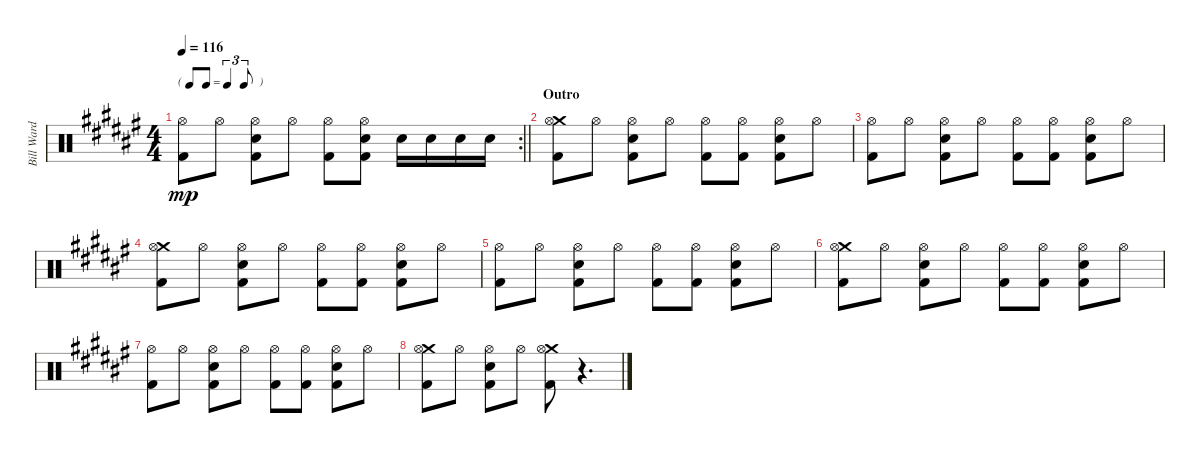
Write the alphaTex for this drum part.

\track ("Bill Ward" "Bill Ward") {instrument percussion}
\staff {score}
\articulation defaults
\rc 2
\ts (4 4)
\tf triplet8th
\tempo 116
\clef neutral
\barLineRight lightlight
\ks f#
("Hi-Hat (open)" "Kick (hit) 2").8{dy mp} "Hi-Hat (open)".8 ("Hi-Hat (open)" "Snare (hit) 2" "Kick (hit) 2").8 "Hi-Hat (open)".8 ("Hi-Hat (open)" "Kick (hit) 2").8 ("Hi-Hat (open)" "Snare (hit) 2" "Kick (hit) 2").8 "Snare (hit) 2".16 "Snare (hit) 2".16 "Snare (hit) 2".16 "Snare (hit) 2".16 |
\section ("" "Outro")
("Crash medium (hit)" "Hi-Hat (open)" "Kick (hit) 2").8 "Hi-Hat (open)".8 ("Hi-Hat (open)" "Snare (hit) 2" "Kick (hit) 2").8 "Hi-Hat (open)".8 ("Hi-Hat (open)" "Kick (hit) 2").8 ("Hi-Hat (open)" "Kick (hit) 2").8 ("Hi-Hat (open)" "Snare (hit) 2" "Kick (hit) 2").8 "Hi-Hat (open)".8 |
("Hi-Hat (open)" "Kick (hit) 2").8 "Hi-Hat (open)".8 ("Hi-Hat (open)" "Snare (hit) 2" "Kick (hit) 2").8 "Hi-Hat (open)".8 ("Hi-Hat (open)" "Kick (hit) 2").8 ("Hi-Hat (open)" "Kick (hit) 2").8 ("Hi-Hat (open)" "Snare (hit) 2" "Kick (hit) 2").8 "Hi-Hat (open)".8 |
("Crash medium (hit)" "Hi-Hat (open)" "Kick (hit) 2").8 "Hi-Hat (open)".8 ("Hi-Hat (open)" "Snare (hit) 2" "Kick (hit) 2").8 "Hi-Hat (open)".8 ("Hi-Hat (open)" "Kick (hit) 2").8 ("Hi-Hat (open)" "Kick (hit) 2").8 ("Hi-Hat (open)" "Snare (hit) 2" "Kick (hit) 2").8 "Hi-Hat (open)".8 |
("Hi-Hat (open)" "Kick (hit) 2").8 "Hi-Hat (open)".8 ("Hi-Hat (open)" "Snare (hit) 2" "Kick (hit) 2").8 "Hi-Hat (open)".8 ("Hi-Hat (open)" "Kick (hit) 2").8 ("Hi-Hat (open)" "Kick (hit) 2").8 ("Hi-Hat (open)" "Snare (hit) 2" "Kick (hit) 2").8 "Hi-Hat (open)".8 |
("Crash medium (hit)" "Hi-Hat (open)" "Kick (hit) 2").8 "Hi-Hat (open)".8 ("Hi-Hat (open)" "Snare (hit) 2" "Kick (hit) 2").8 "Hi-Hat (open)".8 ("Hi-Hat (open)" "Kick (hit) 2").8 ("Hi-Hat (open)" "Kick (hit) 2").8 ("Hi-Hat (open)" "Snare (hit) 2" "Kick (hit) 2").8 "Hi-Hat (open)".8 |
("Hi-Hat (open)" "Kick (hit) 2").8 "Hi-Hat (open)".8 ("Hi-Hat (open)" "Snare (hit) 2" "Kick (hit) 2").8 "Hi-Hat (open)".8 ("Hi-Hat (open)" "Kick (hit) 2").8 ("Hi-Hat (open)" "Kick (hit) 2").8 ("Hi-Hat (open)" "Snare (hit) 2" "Kick (hit) 2").8 "Hi-Hat (open)".8 |
("Crash medium (hit)" "Hi-Hat (open)" "Kick (hit) 2").8 "Hi-Hat (open)".8 ("Hi-Hat (open)" "Snare (hit) 2" "Kick (hit) 2").8 "Hi-Hat (open)".8 ("Crash medium (hit)" "Hi-Hat (open)" "Kick (hit) 2").8 r.4{d}
